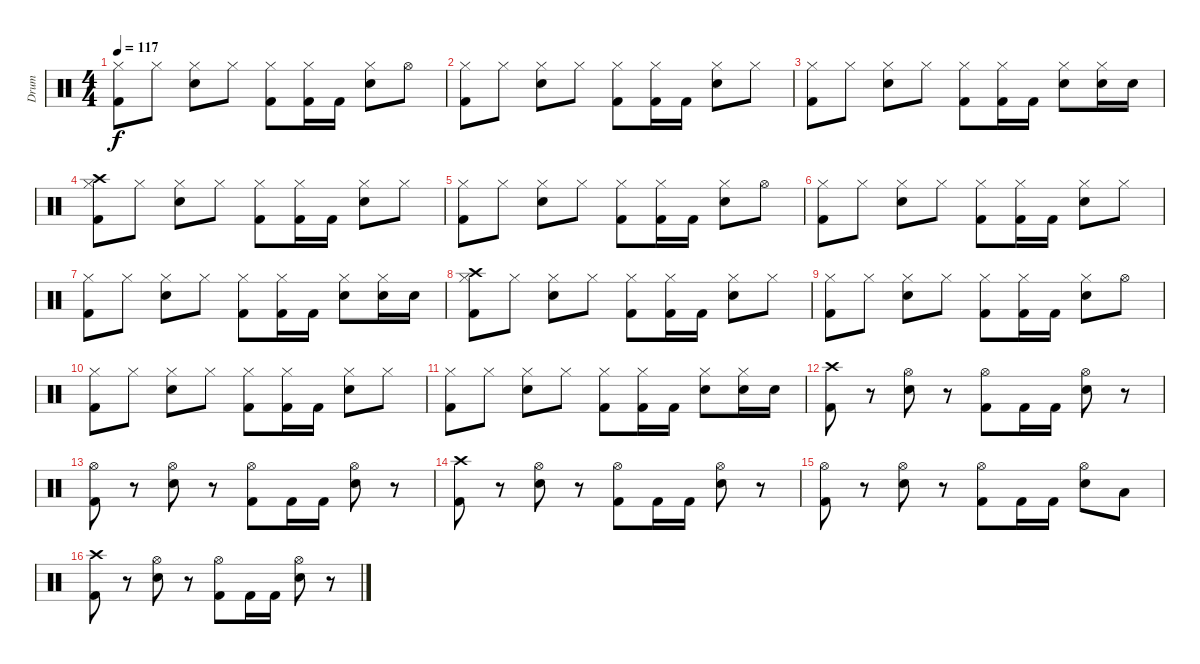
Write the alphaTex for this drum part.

\track ("Drum" "Drum") {instrument percussion}
\staff {score}
\articulation defaults
\ts (4 4)
\tempo 117
\clef neutral
\ks c
("Hi-Hat (closed)" "Kick (hit) 2").8{dy f} "Hi-Hat (closed)".8 ("Hi-Hat (closed)" "Electric Snare (hit)").8 "Hi-Hat (closed)".8 ("Hi-Hat (closed)" "Kick (hit) 2").8 ("Hi-Hat (closed)" "Kick (hit) 2").16 "Kick (hit) 2".16 ("Hi-Hat (closed)" "Electric Snare (hit)").8 "Hi-Hat (open)".8 |
("Hi-Hat (closed)" "Kick (hit) 2").8 "Hi-Hat (closed)".8 ("Hi-Hat (closed)" "Electric Snare (hit)").8 "Hi-Hat (closed)".8 ("Hi-Hat (closed)" "Kick (hit) 2").8 ("Hi-Hat (closed)" "Kick (hit) 2").16 "Kick (hit) 2".16 ("Hi-Hat (closed)" "Electric Snare (hit)").8 "Hi-Hat (closed)".8 |
("Hi-Hat (closed)" "Kick (hit) 2").8 "Hi-Hat (closed)".8 ("Hi-Hat (closed)" "Electric Snare (hit)").8 "Hi-Hat (closed)".8 ("Hi-Hat (closed)" "Kick (hit) 2").8 ("Hi-Hat (closed)" "Kick (hit) 2").16 "Kick (hit) 2".16 ("Hi-Hat (closed)" "Electric Snare (hit)").8 ("Hi-Hat (closed)" "Electric Snare (hit)").16 "Electric Snare (hit)".16 |
("Crash high (hit)" "Hi-Hat (closed)" "Kick (hit) 2").8 "Hi-Hat (closed)".8 ("Hi-Hat (closed)" "Electric Snare (hit)").8 "Hi-Hat (closed)".8 ("Hi-Hat (closed)" "Kick (hit) 2").8 ("Hi-Hat (closed)" "Kick (hit) 2").16 "Kick (hit) 2".16 ("Hi-Hat (closed)" "Electric Snare (hit)").8 "Hi-Hat (closed)".8 |
("Hi-Hat (closed)" "Kick (hit) 2").8 "Hi-Hat (closed)".8 ("Hi-Hat (closed)" "Electric Snare (hit)").8 "Hi-Hat (closed)".8 ("Hi-Hat (closed)" "Kick (hit) 2").8 ("Hi-Hat (closed)" "Kick (hit) 2").16 "Kick (hit) 2".16 ("Hi-Hat (closed)" "Electric Snare (hit)").8 "Hi-Hat (open)".8 |
("Hi-Hat (closed)" "Kick (hit) 2").8 "Hi-Hat (closed)".8 ("Hi-Hat (closed)" "Electric Snare (hit)").8 "Hi-Hat (closed)".8 ("Hi-Hat (closed)" "Kick (hit) 2").8 ("Hi-Hat (closed)" "Kick (hit) 2").16 "Kick (hit) 2".16 ("Hi-Hat (closed)" "Electric Snare (hit)").8 "Hi-Hat (closed)".8 |
("Hi-Hat (closed)" "Kick (hit) 2").8 "Hi-Hat (closed)".8 ("Hi-Hat (closed)" "Electric Snare (hit)").8 "Hi-Hat (closed)".8 ("Hi-Hat (closed)" "Kick (hit) 2").8 ("Hi-Hat (closed)" "Kick (hit) 2").16 "Kick (hit) 2".16 ("Hi-Hat (closed)" "Electric Snare (hit)").8 ("Hi-Hat (closed)" "Electric Snare (hit)").16 "Electric Snare (hit)".16 |
("Crash high (hit)" "Hi-Hat (closed)" "Kick (hit) 2").8 "Hi-Hat (closed)".8 ("Hi-Hat (closed)" "Electric Snare (hit)").8 "Hi-Hat (closed)".8 ("Hi-Hat (closed)" "Kick (hit) 2").8 ("Hi-Hat (closed)" "Kick (hit) 2").16 "Kick (hit) 2".16 ("Hi-Hat (closed)" "Electric Snare (hit)").8 "Hi-Hat (closed)".8 |
("Hi-Hat (closed)" "Kick (hit) 2").8 "Hi-Hat (closed)".8 ("Hi-Hat (closed)" "Electric Snare (hit)").8 "Hi-Hat (closed)".8 ("Hi-Hat (closed)" "Kick (hit) 2").8 ("Hi-Hat (closed)" "Kick (hit) 2").16 "Kick (hit) 2".16 ("Hi-Hat (closed)" "Electric Snare (hit)").8 "Hi-Hat (open)".8 |
("Hi-Hat (closed)" "Kick (hit) 2").8 "Hi-Hat (closed)".8 ("Hi-Hat (closed)" "Electric Snare (hit)").8 "Hi-Hat (closed)".8 ("Hi-Hat (closed)" "Kick (hit) 2").8 ("Hi-Hat (closed)" "Kick (hit) 2").16 "Kick (hit) 2".16 ("Hi-Hat (closed)" "Electric Snare (hit)").8 "Hi-Hat (closed)".8 |
("Hi-Hat (closed)" "Kick (hit) 2").8 "Hi-Hat (closed)".8 ("Hi-Hat (closed)" "Electric Snare (hit)").8 "Hi-Hat (closed)".8 ("Hi-Hat (closed)" "Kick (hit) 2").8 ("Hi-Hat (closed)" "Kick (hit) 2").16 "Kick (hit) 2".16 ("Hi-Hat (closed)" "Electric Snare (hit)").8 ("Hi-Hat (closed)" "Electric Snare (hit)").16 "Electric Snare (hit)".16 |
("Crash high (hit)" "Kick (hit) 2").8 r.8 ("Hi-Hat (open)" "Electric Snare (hit)").8 r.8 ("Hi-Hat (open)" "Kick (hit) 2").8 "Kick (hit) 2".16 "Kick (hit) 2".16 ("Hi-Hat (open)" "Electric Snare (hit)").8 r.8 |
("Hi-Hat (open)" "Kick (hit) 2").8 r.8 ("Hi-Hat (open)" "Electric Snare (hit)").8 r.8 ("Hi-Hat (open)" "Kick (hit) 2").8 "Kick (hit) 2".16 "Kick (hit) 2".16 ("Hi-Hat (open)" "Electric Snare (hit)").8 r.8 |
("Crash high (hit)" "Kick (hit) 2").8 r.8 ("Hi-Hat (open)" "Electric Snare (hit)").8 r.8 ("Hi-Hat (open)" "Kick (hit) 2").8 "Kick (hit) 2".16 "Kick (hit) 2".16 ("Hi-Hat (open)" "Electric Snare (hit)").8 r.8 |
("Hi-Hat (open)" "Kick (hit) 2").8 r.8 ("Hi-Hat (open)" "Electric Snare (hit)").8 r.8 ("Hi-Hat (open)" "Kick (hit) 2").8 "Kick (hit) 2".16 "Kick (hit) 2".16 ("Hi-Hat (open)" "Electric Snare (hit)").8 "Low Tom (hit)".8 |
("Crash high (hit)" "Kick (hit) 2").8 r.8 ("Hi-Hat (open)" "Electric Snare (hit)").8 r.8 ("Hi-Hat (open)" "Kick (hit) 2").8 "Kick (hit) 2".16 "Kick (hit) 2".16 ("Hi-Hat (open)" "Electric Snare (hit)").8 r.8
